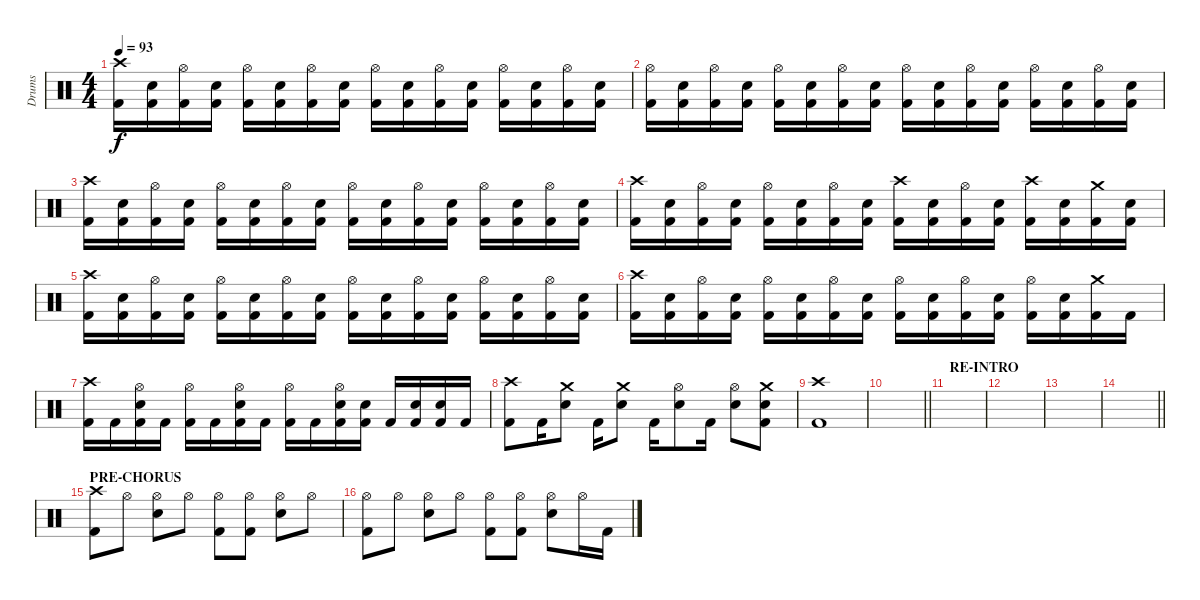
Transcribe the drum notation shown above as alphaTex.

\track ("Drums" "Drums") {instrument percussion}
\staff
\articulation defaults
\ts (4 4)
\tempo 93
\clef neutral
\ks c
("Crash high (hit)" "Kick (hit) 2").16{dy f} ("Snare (hit) 2" "Kick (hit) 2").16 ("Hi-Hat (open)" "Kick (hit) 2").16 ("Snare (hit) 2" "Kick (hit) 2").16 ("Hi-Hat (open)" "Kick (hit) 2").16 ("Snare (hit) 2" "Kick (hit) 2").16 ("Hi-Hat (open)" "Kick (hit) 2").16 ("Snare (hit) 2" "Kick (hit) 2").16 ("Hi-Hat (open)" "Kick (hit) 2").16 ("Snare (hit) 2" "Kick (hit) 2").16 ("Hi-Hat (open)" "Kick (hit) 2").16 ("Snare (hit) 2" "Kick (hit) 2").16 ("Hi-Hat (open)" "Kick (hit) 2").16 ("Snare (hit) 2" "Kick (hit) 2").16 ("Hi-Hat (open)" "Kick (hit) 2").16 ("Snare (hit) 2" "Kick (hit) 2").16 |
("Hi-Hat (open)" "Kick (hit) 2").16 ("Snare (hit) 2" "Kick (hit) 2").16 ("Hi-Hat (open)" "Kick (hit) 2").16 ("Snare (hit) 2" "Kick (hit) 2").16 ("Hi-Hat (open)" "Kick (hit) 2").16 ("Snare (hit) 2" "Kick (hit) 2").16 ("Hi-Hat (open)" "Kick (hit) 2").16 ("Snare (hit) 2" "Kick (hit) 2").16 ("Hi-Hat (open)" "Kick (hit) 2").16 ("Snare (hit) 2" "Kick (hit) 2").16 ("Hi-Hat (open)" "Kick (hit) 2").16 ("Snare (hit) 2" "Kick (hit) 2").16 ("Hi-Hat (open)" "Kick (hit) 2").16 ("Snare (hit) 2" "Kick (hit) 2").16 ("Hi-Hat (open)" "Kick (hit) 2").16 ("Snare (hit) 2" "Kick (hit) 2").16 |
("Crash high (hit)" "Kick (hit) 2").16 ("Snare (hit) 2" "Kick (hit) 2").16 ("Hi-Hat (open)" "Kick (hit) 2").16 ("Snare (hit) 2" "Kick (hit) 2").16 ("Hi-Hat (open)" "Kick (hit) 2").16 ("Snare (hit) 2" "Kick (hit) 2").16 ("Hi-Hat (open)" "Kick (hit) 2").16 ("Snare (hit) 2" "Kick (hit) 2").16 ("Hi-Hat (open)" "Kick (hit) 2").16 ("Snare (hit) 2" "Kick (hit) 2").16 ("Hi-Hat (open)" "Kick (hit) 2").16 ("Snare (hit) 2" "Kick (hit) 2").16 ("Hi-Hat (open)" "Kick (hit) 2").16 ("Snare (hit) 2" "Kick (hit) 2").16 ("Hi-Hat (open)" "Kick (hit) 2").16 ("Snare (hit) 2" "Kick (hit) 2").16 |
("Crash high (hit)" "Kick (hit) 2").16 ("Snare (hit) 2" "Kick (hit) 2").16 ("Hi-Hat (open)" "Kick (hit) 2").16 ("Snare (hit) 2" "Kick (hit) 2").16 ("Hi-Hat (open)" "Kick (hit) 2").16 ("Snare (hit) 2" "Kick (hit) 2").16 ("Hi-Hat (open)" "Kick (hit) 2").16 ("Snare (hit) 2" "Kick (hit) 2").16 ("Crash high (hit)" "Kick (hit) 2").16 ("Snare (hit) 2" "Kick (hit) 2").16 ("Hi-Hat (open)" "Kick (hit) 2").16 ("Snare (hit) 2" "Kick (hit) 2").16 ("Crash high (hit)" "Kick (hit) 2").16 ("Snare (hit) 2" "Kick (hit) 2").16 ("Crash medium (hit)" "Kick (hit) 2").16 ("Snare (hit) 2" "Kick (hit) 2").16 |
("Crash high (hit)" "Kick (hit) 2").16 ("Snare (hit) 2" "Kick (hit) 2").16 ("Hi-Hat (open)" "Kick (hit) 2").16 ("Snare (hit) 2" "Kick (hit) 2").16 ("Hi-Hat (open)" "Kick (hit) 2").16 ("Snare (hit) 2" "Kick (hit) 2").16 ("Hi-Hat (open)" "Kick (hit) 2").16 ("Snare (hit) 2" "Kick (hit) 2").16 ("Hi-Hat (open)" "Kick (hit) 2").16 ("Snare (hit) 2" "Kick (hit) 2").16 ("Hi-Hat (open)" "Kick (hit) 2").16 ("Snare (hit) 2" "Kick (hit) 2").16 ("Hi-Hat (open)" "Kick (hit) 2").16 ("Snare (hit) 2" "Kick (hit) 2").16 ("Hi-Hat (open)" "Kick (hit) 2").16 ("Snare (hit) 2" "Kick (hit) 2").16 |
("Crash high (hit)" "Kick (hit) 2").16 ("Snare (hit) 2" "Kick (hit) 2").16 ("Hi-Hat (open)" "Kick (hit) 2").16 ("Snare (hit) 2" "Kick (hit) 2").16 ("Hi-Hat (open)" "Kick (hit) 2").16 ("Snare (hit) 2" "Kick (hit) 2").16 ("Hi-Hat (open)" "Kick (hit) 2").16 ("Snare (hit) 2" "Kick (hit) 2").16 ("Hi-Hat (open)" "Kick (hit) 2").16 ("Snare (hit) 2" "Kick (hit) 2").16 ("Hi-Hat (open)" "Kick (hit) 2").16 ("Snare (hit) 2" "Kick (hit) 2").16 ("Hi-Hat (open)" "Kick (hit) 2").16 ("Snare (hit) 2" "Kick (hit) 2").16 ("Crash medium (hit)" "Kick (hit) 2").16 "Kick (hit) 2".16 |
("Crash high (hit)" "Kick (hit) 2").16 "Kick (hit) 2".16 ("Hi-Hat (open)" "Snare (hit) 2" "Kick (hit) 2").16 "Kick (hit) 2".16 ("Hi-Hat (open)" "Kick (hit) 2").16 "Kick (hit) 2".16 ("Hi-Hat (open)" "Snare (hit) 2" "Kick (hit) 2").16 "Kick (hit) 2".16 ("Hi-Hat (open)" "Kick (hit) 2").16 "Kick (hit) 2".16 ("Hi-Hat (open)" "Snare (hit) 2" "Kick (hit) 2").16 ("Snare (hit) 2" "Kick (hit) 2").16 "Kick (hit) 2".16 ("Snare (hit) 2" "Kick (hit) 2").16 ("Snare (hit) 2" "Kick (hit) 2").16 "Kick (hit) 2".16 |
("Crash high (hit)" "Kick (hit) 2").8 "Kick (hit) 2".16 ("Crash medium (hit)" "Snare (hit) 2").8 "Kick (hit) 2".16 ("Crash medium (hit)" "Snare (hit) 2").8 "Kick (hit) 2".16 ("Hi-Hat (open)" "Snare (hit) 2").8 "Kick (hit) 2".16 ("Hi-Hat (open)" "Snare (hit) 2").8 ("Crash medium (hit)" "Snare (hit) 2" "Kick (hit) 2").8 |
("Crash high (hit)" "Kick (hit) 2").1 |
\barLineRight lightlight
|
\section ("" "RE-INTRO")
|
|
|
\barLineRight lightlight
|
\section ("" "PRE-CHORUS")
("Crash high (hit)" "Kick (hit) 2").8 "Hi-Hat (open)".8 ("Hi-Hat (open)" "Snare (hit) 2").8 "Hi-Hat (open)".8 ("Hi-Hat (open)" "Kick (hit) 2").8 ("Hi-Hat (open)" "Kick (hit) 2").8 ("Hi-Hat (open)" "Snare (hit) 2").8 "Hi-Hat (open)".8 |
("Hi-Hat (open)" "Kick (hit) 2").8 "Hi-Hat (open)".8 ("Hi-Hat (open)" "Snare (hit) 2").8 "Hi-Hat (open)".8 ("Hi-Hat (open)" "Kick (hit) 2").8 ("Hi-Hat (open)" "Kick (hit) 2").8 ("Hi-Hat (open)" "Snare (hit) 2").8 "Hi-Hat (open)".16 "Kick (hit) 2".16
